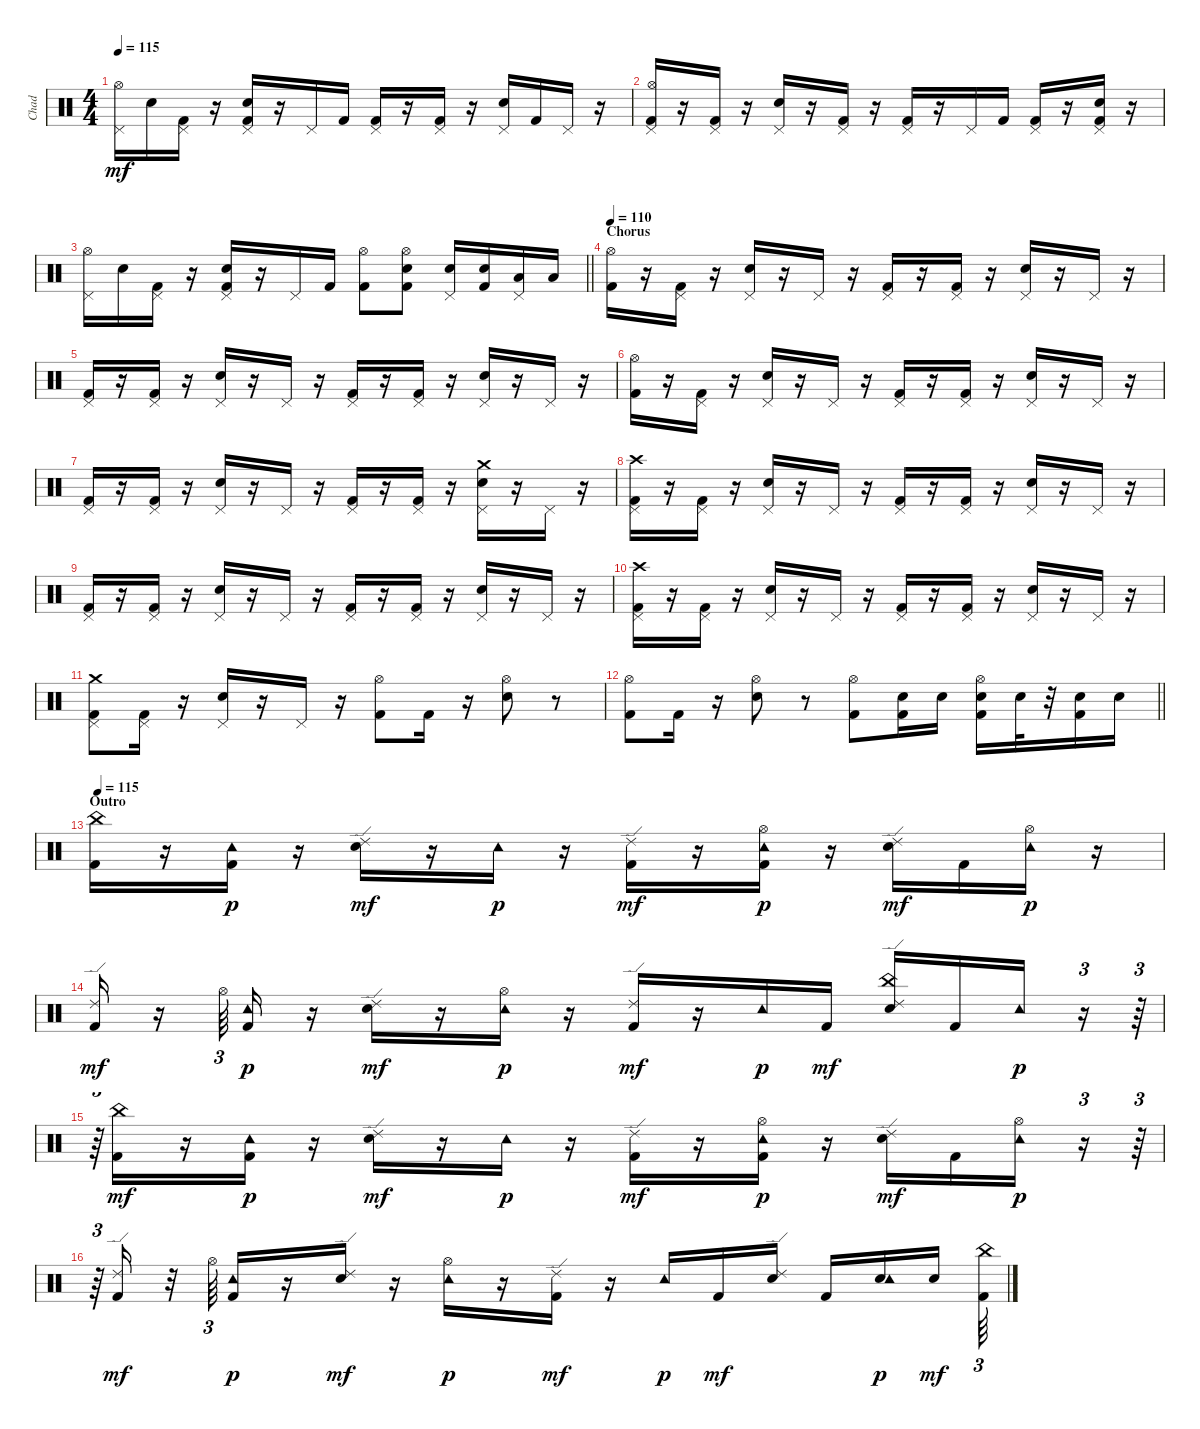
\track ("Chad" "Chad") {instrument percussion}
\staff {score}
\articulation defaults
\ts (4 4)
\tempo 115
\clef neutral
\ks c
("Pedal Hi-Hat (hit)" "Hi-Hat (open)").16{dy mf} "Snare (hit) 2".16 ("Kick (hit) 2" "Pedal Hi-Hat (hit)").16 r.16 ("Kick (hit) 2" "Snare (hit) 2" "Pedal Hi-Hat (hit)").16 r.16 "Pedal Hi-Hat (hit)".16 "Kick (hit) 2".16 ("Kick (hit) 2" "Pedal Hi-Hat (hit)").16 r.16 ("Kick (hit) 2" "Pedal Hi-Hat (hit)").16 r.16 ("Snare (hit) 2" "Pedal Hi-Hat (hit)").16 "Kick (hit) 2".16 "Pedal Hi-Hat (hit)".16 r.16 |
("Kick (hit) 2" "Pedal Hi-Hat (hit)" "Hi-Hat (open)").16 r.16 ("Kick (hit) 2" "Pedal Hi-Hat (hit)").16 r.16 ("Snare (hit) 2" "Pedal Hi-Hat (hit)").16 r.16 ("Kick (hit) 2" "Pedal Hi-Hat (hit)").16 r.16 ("Kick (hit) 2" "Pedal Hi-Hat (hit)").16 r.16 "Pedal Hi-Hat (hit)".16 "Kick (hit) 2".16 ("Kick (hit) 2" "Pedal Hi-Hat (hit)").16 r.16 ("Kick (hit) 2" "Snare (hit) 2" "Pedal Hi-Hat (hit)").16 r.16 |
\barLineRight lightlight
("Pedal Hi-Hat (hit)" "Hi-Hat (open)").16 "Snare (hit) 2".16 ("Kick (hit) 2" "Pedal Hi-Hat (hit)").16 r.16 ("Kick (hit) 2" "Snare (hit) 2" "Pedal Hi-Hat (hit)").16 r.16 "Pedal Hi-Hat (hit)".16 "Kick (hit) 2".16 ("Kick (hit) 2" "Hi-Hat (open)").8 ("Kick (hit) 2" "Snare (hit) 2" "Hi-Hat (open)").8 ("Snare (hit) 2" "Pedal Hi-Hat (hit)").16 ("Kick (hit) 2" "Snare (hit) 2").16 ("Low Floor Tom (hit)" "Pedal Hi-Hat (hit)").16 "Low Floor Tom (hit)".16 |
\section ("" "Chorus")
\tempo 110
("Kick (hit) 2" "Hi-Hat (open)").16 r.16 ("Kick (hit) 2" "Pedal Hi-Hat (hit)").16 r.16 ("Snare (hit) 2" "Pedal Hi-Hat (hit)").16 r.16 "Pedal Hi-Hat (hit)".16 r.16 ("Kick (hit) 2" "Pedal Hi-Hat (hit)").16 r.16 ("Kick (hit) 2" "Pedal Hi-Hat (hit)").16 r.16 ("Snare (hit) 2" "Pedal Hi-Hat (hit)").16 r.16 "Pedal Hi-Hat (hit)".16 r.16 |
("Kick (hit) 2" "Pedal Hi-Hat (hit)").16 r.16 ("Kick (hit) 2" "Pedal Hi-Hat (hit)").16 r.16 ("Snare (hit) 2" "Pedal Hi-Hat (hit)").16 r.16 "Pedal Hi-Hat (hit)".16 r.16 ("Kick (hit) 2" "Pedal Hi-Hat (hit)").16 r.16 ("Kick (hit) 2" "Pedal Hi-Hat (hit)").16 r.16 ("Snare (hit) 2" "Pedal Hi-Hat (hit)").16 r.16 "Pedal Hi-Hat (hit)".16 r.16 |
("Kick (hit) 2" "Hi-Hat (open)").16 r.16 ("Kick (hit) 2" "Pedal Hi-Hat (hit)").16 r.16 ("Snare (hit) 2" "Pedal Hi-Hat (hit)").16 r.16 "Pedal Hi-Hat (hit)".16 r.16 ("Kick (hit) 2" "Pedal Hi-Hat (hit)").16 r.16 ("Kick (hit) 2" "Pedal Hi-Hat (hit)").16 r.16 ("Snare (hit) 2" "Pedal Hi-Hat (hit)").16 r.16 "Pedal Hi-Hat (hit)".16 r.16 |
("Kick (hit) 2" "Pedal Hi-Hat (hit)").16 r.16 ("Kick (hit) 2" "Pedal Hi-Hat (hit)").16 r.16 ("Snare (hit) 2" "Pedal Hi-Hat (hit)").16 r.16 "Pedal Hi-Hat (hit)".16 r.16 ("Kick (hit) 2" "Pedal Hi-Hat (hit)").16 r.16 ("Kick (hit) 2" "Pedal Hi-Hat (hit)").16 r.16 ("Snare (hit) 2" "Pedal Hi-Hat (hit)" "Crash medium (hit)").16 r.16 "Pedal Hi-Hat (hit)".16 r.16 |
("Kick (hit) 2" "Pedal Hi-Hat (hit)" "Crash high (hit)").16 r.16 ("Kick (hit) 2" "Pedal Hi-Hat (hit)").16 r.16 ("Snare (hit) 2" "Pedal Hi-Hat (hit)").16 r.16 "Pedal Hi-Hat (hit)".16 r.16 ("Kick (hit) 2" "Pedal Hi-Hat (hit)").16 r.16 ("Kick (hit) 2" "Pedal Hi-Hat (hit)").16 r.16 ("Snare (hit) 2" "Pedal Hi-Hat (hit)").16 r.16 "Pedal Hi-Hat (hit)".16 r.16 |
("Kick (hit) 2" "Pedal Hi-Hat (hit)").16 r.16 ("Kick (hit) 2" "Pedal Hi-Hat (hit)").16 r.16 ("Snare (hit) 2" "Pedal Hi-Hat (hit)").16 r.16 "Pedal Hi-Hat (hit)".16 r.16 ("Kick (hit) 2" "Pedal Hi-Hat (hit)").16 r.16 ("Kick (hit) 2" "Pedal Hi-Hat (hit)").16 r.16 ("Snare (hit) 2" "Pedal Hi-Hat (hit)").16 r.16 "Pedal Hi-Hat (hit)".16 r.16 |
("Kick (hit) 2" "Pedal Hi-Hat (hit)" "Crash high (hit)").16 r.16 ("Kick (hit) 2" "Pedal Hi-Hat (hit)").16 r.16 ("Snare (hit) 2" "Pedal Hi-Hat (hit)").16 r.16 "Pedal Hi-Hat (hit)".16 r.16 ("Kick (hit) 2" "Pedal Hi-Hat (hit)").16 r.16 ("Kick (hit) 2" "Pedal Hi-Hat (hit)").16 r.16 ("Snare (hit) 2" "Pedal Hi-Hat (hit)").16 r.16 "Pedal Hi-Hat (hit)".16 r.16 |
("Kick (hit) 2" "Pedal Hi-Hat (hit)" "Crash medium (hit)").8 ("Kick (hit) 2" "Pedal Hi-Hat (hit)").16 r.16 ("Snare (hit) 2" "Pedal Hi-Hat (hit)").16 r.16 "Pedal Hi-Hat (hit)".16 r.16 ("Kick (hit) 2" "Hi-Hat (open)").8 "Kick (hit) 2".16 r.16 ("Snare (hit) 2" "Hi-Hat (open)").8 r.8 |
\barLineRight lightlight
("Hi-Hat (open)" "Kick (hit) 2").8 "Kick (hit) 2".16 r.16 ("Snare (hit) 2" "Hi-Hat (open)").8 r.8 ("Kick (hit) 2" "Hi-Hat (open)").8 ("Kick (hit) 2" "Snare (hit) 2").16 "Snare (hit) 2".16 ("Kick (hit) 2" "Snare (hit) 2" "Hi-Hat (open)").16 "Snare (hit) 2".32 r.32 ("Kick (hit) 2" "Snare (hit) 2").16 "Snare (hit) 2".16 |
\section ("" "Outro")
\tempo 115
("Kick (hit) 2" "China (hit)").16 r.16 ("Kick (hit) 2" "Tambourine (hit)").16{dy p} r.16 ("Snare (hit) 2" "Ride (edge) 2").16{dy mf} r.16 "Tambourine (hit)".16{dy p} r.16 ("Kick (hit) 2" "Ride (edge) 2").16{dy mf} r.16 ("Kick (hit) 2" "Hi-Hat (open)" "Tambourine (hit)").16{dy p} r.16 ("Snare (hit) 2" "Ride (edge) 2").16{dy mf} "Kick (hit) 2".16 ("Hi-Hat (open)" "Tambourine (hit)").16{dy p} r.16 |
("Kick (hit) 2" "Ride (edge) 2").16{dy mf} r.16 "Hi-Hat (open)".64{tu (3 2)} ("Kick (hit) 2" "Tambourine (hit)").16{dy p} r.16 ("Snare (hit) 2" "Ride (edge) 2").16{dy mf} r.16 ("Hi-Hat (open)" "Tambourine (hit)").16{dy p} r.16 ("Kick (hit) 2" "Ride (edge) 2").16{dy mf} r.16 "Tambourine (hit)".16{dy p} "Kick (hit) 2".16{dy mf} ("Snare (hit) 2" "China (hit)" "Ride (edge) 2").16 "Kick (hit) 2".16 "Tambourine (hit)".16{dy p} r.16{tu (3 2)} r.64{tu (3 2)} |
r.64{tu (3 2)} ("Kick (hit) 2" "China (hit)").16{dy mf} r.16 ("Kick (hit) 2" "Tambourine (hit)").16{dy p} r.16 ("Snare (hit) 2" "Ride (edge) 2").16{dy mf} r.16 "Tambourine (hit)".16{dy p} r.16 ("Kick (hit) 2" "Ride (edge) 2").16{dy mf} r.16 ("Kick (hit) 2" "Hi-Hat (open)" "Tambourine (hit)").16{dy p} r.16 ("Snare (hit) 2" "Ride (edge) 2").16{dy mf} "Kick (hit) 2".16 ("Hi-Hat (open)" "Tambourine (hit)").16{dy p} r.16{tu (3 2)} r.64{tu (3 2)} |
r.64{tu (3 2)} ("Kick (hit) 2" "Ride (edge) 2").16{dy mf} r.32 "Hi-Hat (open)".64{tu (3 2)} ("Kick (hit) 2" "Tambourine (hit)").16{dy p} r.16 ("Snare (hit) 2" "Ride (edge) 2").16{dy mf} r.16 ("Hi-Hat (open)" "Tambourine (hit)").16{dy p} r.16 ("Kick (hit) 2" "Ride (edge) 2").16{dy mf} r.16 "Tambourine (hit)".16{dy p} "Kick (hit) 2".16{dy mf} ("Snare (hit) 2" "Ride (edge) 2").16 "Kick (hit) 2".16 ("Snare (hit) 2" "Tambourine (hit)").16{dy p} "Snare (hit) 2".16{dy mf beam splitsecondary} ("Kick (hit) 2" "China (hit)").64{tu (3 2)}
